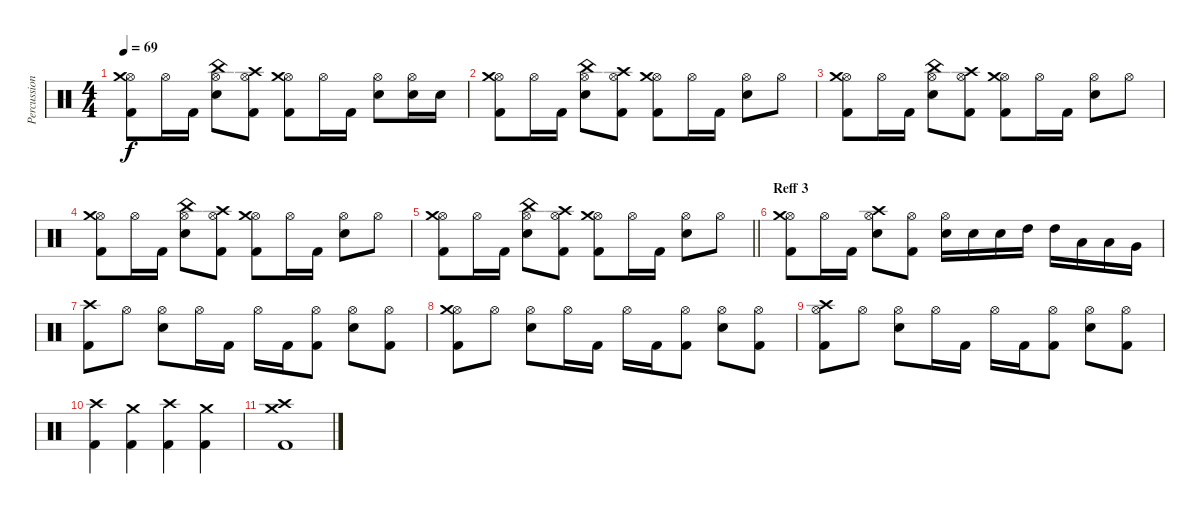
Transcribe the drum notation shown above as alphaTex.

\track ("Percussion" "Percussion") {instrument percussion}
\staff {score}
\articulation defaults
\ts (4 4)
\tempo 69
\clef neutral
\ks c
("Hi-Hat (open)" "Crash medium (hit)" "Kick (hit) 2").8{dy f} "Hi-Hat (open)".16 "Kick (hit) 2".16 ("Hi-Hat (open)" "Electric Snare (hit)" "China (hit)").8 ("Hi-Hat (open)" "Crash high (hit)" "Kick (hit) 2").8 ("Hi-Hat (open)" "Crash medium (hit)" "Kick (hit) 2").8 "Hi-Hat (open)".16 "Kick (hit) 2".16 ("Hi-Hat (open)" "Electric Snare (hit)").8 ("Hi-Hat (open)" "Electric Snare (hit)").16 "Electric Snare (hit)".16 |
("Hi-Hat (open)" "Crash medium (hit)" "Kick (hit) 2").8 "Hi-Hat (open)".16 "Kick (hit) 2".16 ("Hi-Hat (open)" "Electric Snare (hit)" "China (hit)").8 ("Hi-Hat (open)" "Crash high (hit)" "Kick (hit) 2").8 ("Hi-Hat (open)" "Crash medium (hit)" "Kick (hit) 2").8 "Hi-Hat (open)".16 "Kick (hit) 2".16 ("Hi-Hat (open)" "Electric Snare (hit)").8 "Hi-Hat (open)".8 |
("Hi-Hat (open)" "Crash medium (hit)" "Kick (hit) 2").8 "Hi-Hat (open)".16 "Kick (hit) 2".16 ("Hi-Hat (open)" "Electric Snare (hit)" "China (hit)").8 ("Hi-Hat (open)" "Crash high (hit)" "Kick (hit) 2").8 ("Hi-Hat (open)" "Crash medium (hit)" "Kick (hit) 2").8 "Hi-Hat (open)".16 "Kick (hit) 2".16 ("Hi-Hat (open)" "Electric Snare (hit)").8 "Hi-Hat (open)".8 |
("Hi-Hat (open)" "Crash medium (hit)" "Kick (hit) 2").8 "Hi-Hat (open)".16 "Kick (hit) 2".16 ("Hi-Hat (open)" "Electric Snare (hit)" "China (hit)").8 ("Hi-Hat (open)" "Crash high (hit)" "Kick (hit) 2").8 ("Hi-Hat (open)" "Crash medium (hit)" "Kick (hit) 2").8 "Hi-Hat (open)".16 "Kick (hit) 2".16 ("Hi-Hat (open)" "Electric Snare (hit)").8 "Hi-Hat (open)".8 |
\barLineRight lightlight
("Hi-Hat (open)" "Crash medium (hit)" "Kick (hit) 2").8 "Hi-Hat (open)".16 "Kick (hit) 2".16 ("Hi-Hat (open)" "Electric Snare (hit)" "China (hit)").8 ("Hi-Hat (open)" "Crash high (hit)" "Kick (hit) 2").8 ("Hi-Hat (open)" "Crash medium (hit)" "Kick (hit) 2").8 "Hi-Hat (open)".16 "Kick (hit) 2".16 ("Hi-Hat (open)" "Electric Snare (hit)").8 "Hi-Hat (open)".8 |
\section ("" "Reff 3")
("Hi-Hat (open)" "Crash medium (hit)" "Kick (hit) 2").8 "Hi-Hat (open)".16 "Kick (hit) 2".16 ("Hi-Hat (open)" "Electric Snare (hit)" "Crash high (hit)").8 ("Hi-Hat (open)" "Kick (hit) 2").8 ("Hi-Hat (open)" "Electric Snare (hit)").16 "Electric Snare (hit)".16 "Electric Snare (hit)".16 "High Tom (hit)".16 "High Tom (hit)".16 "Low Tom (hit)".16 "Low Tom (hit)".16 "Very Low Tom (hit)".16 |
("Crash high (hit)" "Kick (hit) 2").8 "Hi-Hat (open)".8 ("Hi-Hat (open)" "Electric Snare (hit)").8 "Hi-Hat (open)".16 "Kick (hit) 2".16 "Hi-Hat (open)".16 "Kick (hit) 2".16 ("Hi-Hat (open)" "Kick (hit) 2").8 ("Hi-Hat (open)" "Electric Snare (hit)").8 ("Hi-Hat (open)" "Kick (hit) 2").8 |
("Hi-Hat (open)" "Crash medium (hit)" "Kick (hit) 2").8 "Hi-Hat (open)".8 ("Hi-Hat (open)" "Electric Snare (hit)").8 "Hi-Hat (open)".16 "Kick (hit) 2".16 "Hi-Hat (open)".16 "Kick (hit) 2".16 ("Hi-Hat (open)" "Kick (hit) 2").8 ("Hi-Hat (open)" "Electric Snare (hit)").8 ("Hi-Hat (open)" "Kick (hit) 2").8 |
("Hi-Hat (open)" "Crash high (hit)" "Kick (hit) 2").8 "Hi-Hat (open)".8 ("Hi-Hat (open)" "Electric Snare (hit)").8 "Hi-Hat (open)".16 "Kick (hit) 2".16 "Hi-Hat (open)".16 "Kick (hit) 2".16 ("Hi-Hat (open)" "Kick (hit) 2").8 ("Hi-Hat (open)" "Electric Snare (hit)").8 ("Hi-Hat (open)" "Kick (hit) 2").8 |
("Crash high (hit)" "Kick (hit) 2").4 ("Crash medium (hit)" "Kick (hit) 2").4 ("Crash high (hit)" "Kick (hit) 2").4 ("Crash medium (hit)" "Kick (hit) 2").4 |
("Crash high (hit)" "Crash medium (hit)" "Kick (hit) 2").1
